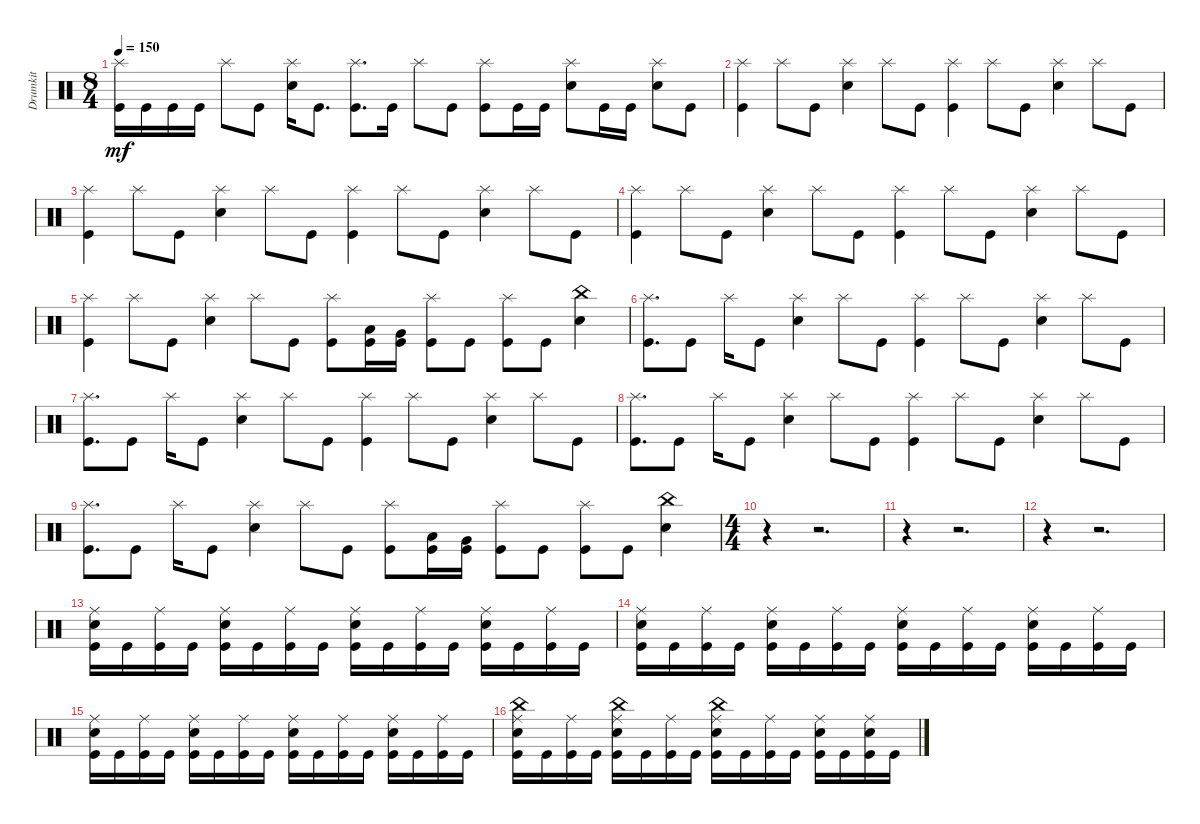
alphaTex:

\track ("Drumkit" "Drumkit") {instrument percussion}
\staff {score}
\articulation defaults
\ts (8 4)
\tempo 150
\clef neutral
\ks c
("Kick (hit)" "Splash (hit)").16{dy mf} "Kick (hit)".16 "Kick (hit)".16 "Kick (hit)".16 "Splash (hit)".8 "Kick (hit)".8 ("Snare (hit) 2" "Splash (hit)").16 "Kick (hit)".8{d} ("Kick (hit)" "Splash (hit)").8{d} "Kick (hit)".16 "Splash (hit)".8 "Kick (hit)".8 ("Kick (hit)" "Splash (hit)").8 "Kick (hit)".16 "Kick (hit)".16 ("Snare (hit) 2" "Splash (hit)").8 "Kick (hit)".16 "Kick (hit)".16 ("Snare (hit) 2" "Splash (hit)").8 "Kick (hit)".8 |
("Splash (hit)" "Kick (hit)").4 "Splash (hit)".8 "Kick (hit)".8 ("Snare (hit) 2" "Splash (hit)").4 "Splash (hit)".8 "Kick (hit)".8 ("Splash (hit)" "Kick (hit)").4 "Splash (hit)".8 "Kick (hit)".8 ("Splash (hit)" "Snare (hit) 2").4 "Splash (hit)".8 "Kick (hit)".8 |
("Splash (hit)" "Kick (hit)").4 "Splash (hit)".8 "Kick (hit)".8 ("Snare (hit) 2" "Splash (hit)").4 "Splash (hit)".8 "Kick (hit)".8 ("Splash (hit)" "Kick (hit)").4 "Splash (hit)".8 "Kick (hit)".8 ("Splash (hit)" "Snare (hit) 2").4 "Splash (hit)".8 "Kick (hit)".8 |
("Splash (hit)" "Kick (hit)").4 "Splash (hit)".8 "Kick (hit)".8 ("Snare (hit) 2" "Splash (hit)").4 "Splash (hit)".8 "Kick (hit)".8 ("Splash (hit)" "Kick (hit)").4 "Splash (hit)".8 "Kick (hit)".8 ("Splash (hit)" "Snare (hit) 2").4 "Splash (hit)".8 "Kick (hit)".8 |
("Splash (hit)" "Kick (hit)").4 "Splash (hit)".8 "Kick (hit)".8 ("Snare (hit) 2" "Splash (hit)").4 "Splash (hit)".8 "Kick (hit)".8 ("Splash (hit)" "Kick (hit)").8 ("Kick (hit)" "Low Tom (hit)").16 ("Kick (hit)" "Very Low Tom (hit)").16 ("Kick (hit)" "Splash (hit)").8 "Kick (hit)".8 ("Kick (hit)" "Splash (hit)").8 "Kick (hit)".8 ("Snare (hit) 2" "China (hit)").4 |
("Splash (hit)" "Kick (hit)").8{d} "Kick (hit)".8 "Splash (hit)".16 "Kick (hit)".8 ("Snare (hit) 2" "Splash (hit)").4 "Splash (hit)".8 "Kick (hit)".8 ("Splash (hit)" "Kick (hit)").4 "Splash (hit)".8 "Kick (hit)".8 ("Splash (hit)" "Snare (hit) 2").4 "Splash (hit)".8 "Kick (hit)".8 |
("Splash (hit)" "Kick (hit)").8{d} "Kick (hit)".8 "Splash (hit)".16 "Kick (hit)".8 ("Snare (hit) 2" "Splash (hit)").4 "Splash (hit)".8 "Kick (hit)".8 ("Splash (hit)" "Kick (hit)").4 "Splash (hit)".8 "Kick (hit)".8 ("Splash (hit)" "Snare (hit) 2").4 "Splash (hit)".8 "Kick (hit)".8 |
("Splash (hit)" "Kick (hit)").8{d} "Kick (hit)".8 "Splash (hit)".16 "Kick (hit)".8 ("Snare (hit) 2" "Splash (hit)").4 "Splash (hit)".8 "Kick (hit)".8 ("Splash (hit)" "Kick (hit)").4 "Splash (hit)".8 "Kick (hit)".8 ("Splash (hit)" "Snare (hit) 2").4 "Splash (hit)".8 "Kick (hit)".8 |
("Splash (hit)" "Kick (hit)").8{d} "Kick (hit)".8 "Splash (hit)".16 "Kick (hit)".8 ("Snare (hit) 2" "Splash (hit)").4 "Splash (hit)".8 "Kick (hit)".8 ("Splash (hit)" "Kick (hit)").8 ("Kick (hit)" "Low Tom (hit)").16 ("Kick (hit)" "Very Low Tom (hit)").16 ("Kick (hit)" "Splash (hit)").8 "Kick (hit)".8 ("Kick (hit)" "Splash (hit)").8 "Kick (hit)".8 ("Snare (hit) 2" "China (hit)").4 |
\ts (4 4)
r.4 r.2{d} |
r.4 r.2{d} |
r.4 r.2{d} |
("Kick (hit)" "Snare (hit) 2" "Ride (middle)").16 "Kick (hit)".16 ("Kick (hit)" "Ride (middle)").16 "Kick (hit)".16 ("Kick (hit)" "Snare (hit) 2" "Ride (middle)").16 "Kick (hit)".16 ("Kick (hit)" "Ride (middle)").16 "Kick (hit)".16 ("Kick (hit)" "Snare (hit) 2" "Ride (middle)").16 "Kick (hit)".16 ("Kick (hit)" "Ride (middle)").16 "Kick (hit)".16 ("Kick (hit)" "Snare (hit) 2" "Ride (middle)").16 "Kick (hit)".16 ("Kick (hit)" "Ride (middle)").16 "Kick (hit)".16 |
("Kick (hit)" "Snare (hit) 2" "Ride (middle)").16 "Kick (hit)".16 ("Kick (hit)" "Ride (middle)").16 "Kick (hit)".16 ("Kick (hit)" "Snare (hit) 2" "Ride (middle)").16 "Kick (hit)".16 ("Kick (hit)" "Ride (middle)").16 "Kick (hit)".16 ("Kick (hit)" "Snare (hit) 2" "Ride (middle)").16 "Kick (hit)".16 ("Kick (hit)" "Ride (middle)").16 "Kick (hit)".16 ("Kick (hit)" "Snare (hit) 2" "Ride (middle)").16 "Kick (hit)".16 ("Kick (hit)" "Ride (middle)").16 "Kick (hit)".16 |
("Kick (hit)" "Snare (hit) 2" "Ride (middle)").16 "Kick (hit)".16 ("Kick (hit)" "Ride (middle)").16 "Kick (hit)".16 ("Kick (hit)" "Snare (hit) 2" "Ride (middle)").16 "Kick (hit)".16 ("Kick (hit)" "Ride (middle)").16 "Kick (hit)".16 ("Kick (hit)" "Snare (hit) 2" "Ride (middle)").16 "Kick (hit)".16 ("Kick (hit)" "Ride (middle)").16 "Kick (hit)".16 ("Kick (hit)" "Snare (hit) 2" "Ride (middle)").16 "Kick (hit)".16 ("Kick (hit)" "Ride (middle)").16 "Kick (hit)".16 |
("Kick (hit)" "Snare (hit) 2" "China (hit)" "Ride (middle)").16 "Kick (hit)".16 ("Kick (hit)" "Ride (middle)").16 "Kick (hit)".16 ("Kick (hit)" "Snare (hit) 2" "China (hit)" "Ride (middle)").16 "Kick (hit)".16 ("Kick (hit)" "Ride (middle)").16 "Kick (hit)".16 ("Kick (hit)" "Snare (hit) 2" "China (hit)" "Ride (middle)").16 "Kick (hit)".16 ("Kick (hit)" "Ride (middle)").16 "Kick (hit)".16 ("Kick (hit)" "Snare (hit) 2" "Ride (middle)").16 "Kick (hit)".16 ("Kick (hit)" "Snare (hit) 2" "Ride (middle)").16 "Kick (hit)".16
